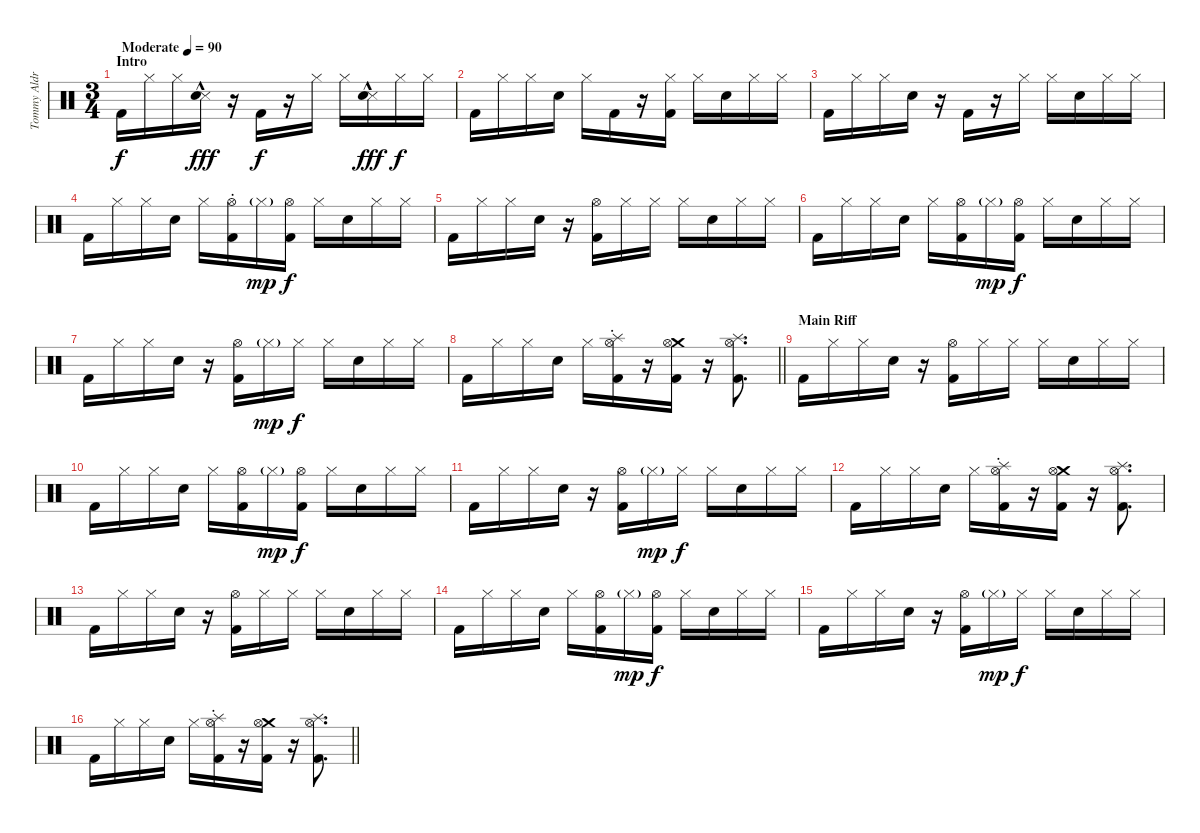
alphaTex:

\track ("Tommy Aldridge" "Tommy Aldr") {instrument percussion}
\staff {score}
\articulation defaults
\ts (3 4)
\section ("" "Intro")
\tempo (90 "Moderate")
\clef neutral
\ks c "Kick (hit) 2".16{dy f} "Hi-Hat (closed)".16 "Hi-Hat (closed)".16
("Snare (side stick) 3"{hac} "Snare (hit) 2").16{dy fff} r.16 "Kick (hit) 2".16{dy f} r.16 "Hi-Hat (closed)".16 "Hi-Hat (closed)".16 ("Snare (side stick) 3"{hac} "Snare (hit) 2").16{dy fff} "Hi-Hat (closed)".16{dy f} "Hi-Hat (closed)".16 |
"Kick (hit) 2".16 "Hi-Hat (closed)".16 "Hi-Hat (closed)".16 "Snare (hit) 2".16 "Hi-Hat (closed)".16 "Kick (hit) 2".16 r.16 ("Hi-Hat (closed)" "Kick (hit) 2").16 "Hi-Hat (closed)".16 "Snare (hit) 2".16 "Hi-Hat (closed)".16 "Hi-Hat (closed)".16 |
"Kick (hit) 2".16 "Hi-Hat (closed)".16 "Hi-Hat (closed)".16 "Snare (hit) 2".16 r.16 "Kick (hit) 2".16 r.16 "Hi-Hat (closed)".16 "Hi-Hat (closed)".16 "Snare (hit) 2".16 "Hi-Hat (closed)".16 "Hi-Hat (closed)".16 |
"Kick (hit) 2".16 "Hi-Hat (closed)".16 "Hi-Hat (closed)".16 "Snare (hit) 2".16 "Hi-Hat (closed)".16 ("Hi-Hat (open)"{st} "Kick (hit) 2").16 "Hi-Hat (closed)"{g}.16{dy mp} ("Hi-Hat (open)" "Kick (hit) 2").16{dy f} "Hi-Hat (closed)".16 "Snare (hit) 2".16 "Hi-Hat (closed)".16 "Hi-Hat (closed)".16 |
"Kick (hit) 2".16 "Hi-Hat (closed)".16 "Hi-Hat (closed)".16 "Snare (hit) 2".16 r.16 ("Hi-Hat (open)" "Kick (hit) 2").16 "Hi-Hat (closed)".16 "Hi-Hat (closed)".16 "Hi-Hat (closed)".16 "Snare (hit) 2".16 "Hi-Hat (closed)".16 "Hi-Hat (closed)".16 |
"Kick (hit) 2".16 "Hi-Hat (closed)".16 "Hi-Hat (closed)".16 "Snare (hit) 2".16 "Hi-Hat (closed)".16 ("Hi-Hat (open)" "Kick (hit) 2").16 "Hi-Hat (closed)"{g}.16{dy mp} ("Hi-Hat (open)" "Kick (hit) 2").16{dy f} "Hi-Hat (closed)".16 "Snare (hit) 2".16 "Hi-Hat (closed)".16 "Hi-Hat (closed)".16 |
"Kick (hit) 2".16 "Hi-Hat (closed)".16 "Hi-Hat (closed)".16 "Snare (hit) 2".16 r.16 ("Hi-Hat (open)" "Kick (hit) 2").16 "Hi-Hat (closed)"{g}.16{dy mp} "Hi-Hat (closed)".16{dy f} "Hi-Hat (closed)".16 "Snare (hit) 2".16 "Hi-Hat (closed)".16 "Hi-Hat (closed)".16 |
\barLineRight lightlight "Kick (hit) 2".16 "Hi-Hat (closed)".16 "Hi-Hat (closed)".16 "Snare (hit) 2".16 "Hi-Hat (closed)".16
("Splash (hit)" "Hi-Hat (open)"{st} "Kick (hit) 2").16 r.16 ("Crash medium (hit)" "Hi-Hat (open)" "Kick (hit) 2").16 r.16 ("Splash (hit)" "Hi-Hat (open)" "Kick (hit) 2").8{d} |
\section ("" "Main Riff")
"Kick (hit) 2".16 "Hi-Hat (closed)".16 "Hi-Hat (closed)".16 "Snare (hit) 2".16 r.16 ("Hi-Hat (open)" "Kick (hit) 2").16 "Hi-Hat (closed)".16 "Hi-Hat (closed)".16 "Hi-Hat (closed)".16 "Snare (hit) 2".16 "Hi-Hat (closed)".16 "Hi-Hat (closed)".16 |
"Kick (hit) 2".16 "Hi-Hat (closed)".16 "Hi-Hat (closed)".16 "Snare (hit) 2".16 "Hi-Hat (closed)".16 ("Hi-Hat (open)" "Kick (hit) 2").16 "Hi-Hat (closed)"{g}.16{dy mp} ("Hi-Hat (open)" "Kick (hit) 2").16{dy f} "Hi-Hat (closed)".16 "Snare (hit) 2".16 "Hi-Hat (closed)".16 "Hi-Hat (closed)".16 |
"Kick (hit) 2".16 "Hi-Hat (closed)".16 "Hi-Hat (closed)".16 "Snare (hit) 2".16 r.16 ("Hi-Hat (open)" "Kick (hit) 2").16 "Hi-Hat (closed)"{g}.16{dy mp} "Hi-Hat (closed)".16{dy f} "Hi-Hat (closed)".16 "Snare (hit) 2".16 "Hi-Hat (closed)".16 "Hi-Hat (closed)".16 |
"Kick (hit) 2".16 "Hi-Hat (closed)".16 "Hi-Hat (closed)".16 "Snare (hit) 2".16 "Hi-Hat (closed)".16 ("Splash (hit)" "Hi-Hat (open)"{st} "Kick (hit) 2").16 r.16 ("Crash medium (hit)" "Hi-Hat (open)" "Kick (hit) 2").16 r.16 ("Splash (hit)" "Hi-Hat (open)" "Kick (hit) 2").8{d} |
"Kick (hit) 2".16 "Hi-Hat (closed)".16 "Hi-Hat (closed)".16 "Snare (hit) 2".16 r.16 ("Hi-Hat (open)" "Kick (hit) 2").16 "Hi-Hat (closed)".16 "Hi-Hat (closed)".16 "Hi-Hat (closed)".16 "Snare (hit) 2".16 "Hi-Hat (closed)".16 "Hi-Hat (closed)".16 |
"Kick (hit) 2".16 "Hi-Hat (closed)".16 "Hi-Hat (closed)".16 "Snare (hit) 2".16 "Hi-Hat (closed)".16 ("Hi-Hat (open)" "Kick (hit) 2").16 "Hi-Hat (closed)"{g}.16{dy mp} ("Hi-Hat (open)" "Kick (hit) 2").16{dy f} "Hi-Hat (closed)".16 "Snare (hit) 2".16 "Hi-Hat (closed)".16 "Hi-Hat (closed)".16 |
"Kick (hit) 2".16 "Hi-Hat (closed)".16 "Hi-Hat (closed)".16 "Snare (hit) 2".16 r.16 ("Hi-Hat (open)" "Kick (hit) 2").16 "Hi-Hat (closed)"{g}.16{dy mp} "Hi-Hat (closed)".16{dy f} "Hi-Hat (closed)".16 "Snare (hit) 2".16 "Hi-Hat (closed)".16 "Hi-Hat (closed)".16 |
\barLineRight lightlight "Kick (hit) 2".16 "Hi-Hat (closed)".16 "Hi-Hat (closed)".16 "Snare (hit) 2".16 "Hi-Hat (closed)".16
("Splash (hit)" "Hi-Hat (open)"{st} "Kick (hit) 2").16 r.16 ("Crash medium (hit)" "Hi-Hat (open)" "Kick (hit) 2").16 r.16 ("Splash (hit)" "Hi-Hat (open)" "Kick (hit) 2").8{d}
